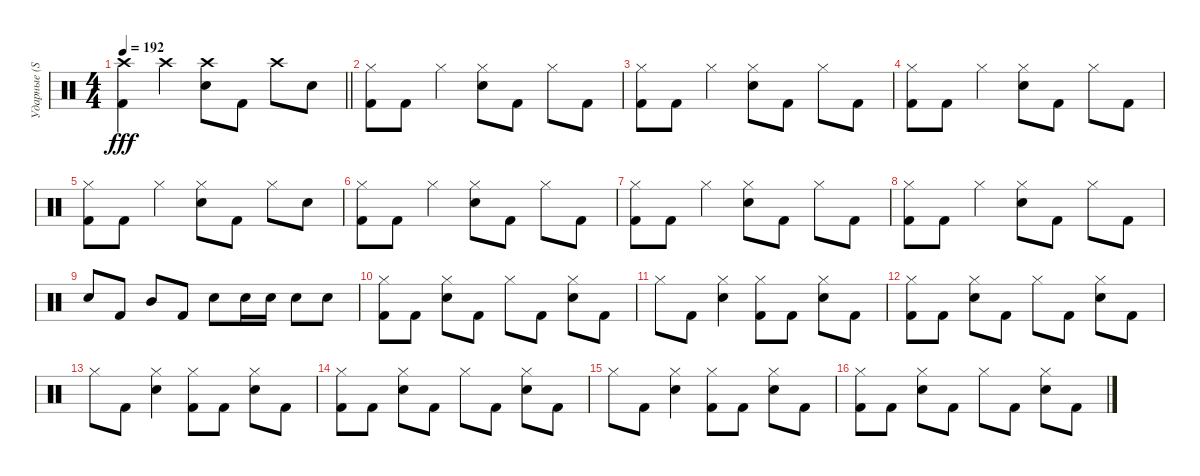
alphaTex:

\track ("Ударные (Steve Jocz)" "Ударные (S") {instrument percussion}
\staff {score}
\articulation defaults
\ts (4 4)
\tempo 192
\clef neutral
\barLineRight lightlight
\ks c
("Crash high (hit)" "Kick (hit) 2").4{dy fff} "Crash high (hit)".4 ("Crash high (hit)" "Electric Snare (hit)").8 "Kick (hit) 2".8 "Crash high (hit)".8 "Electric Snare (hit)".8 |
("Hi-Hat (closed)" "Kick (hit) 2").8 "Kick (hit) 2".8 "Hi-Hat (closed)".4 ("Hi-Hat (closed)" "Electric Snare (hit)").8 "Kick (hit) 2".8 "Hi-Hat (closed)".8 "Kick (hit) 2".8 |
("Hi-Hat (closed)" "Kick (hit) 2").8 "Kick (hit) 2".8 "Hi-Hat (closed)".4 ("Hi-Hat (closed)" "Electric Snare (hit)").8 "Kick (hit) 2".8 "Hi-Hat (closed)".8 "Kick (hit) 2".8 |
("Hi-Hat (closed)" "Kick (hit) 2").8 "Kick (hit) 2".8 "Hi-Hat (closed)".4 ("Hi-Hat (closed)" "Electric Snare (hit)").8 "Kick (hit) 2".8 "Hi-Hat (closed)".8 "Kick (hit) 2".8 |
("Hi-Hat (closed)" "Kick (hit) 2").8 "Kick (hit) 2".8 "Hi-Hat (closed)".4 ("Hi-Hat (closed)" "Electric Snare (hit)").8 "Kick (hit) 2".8 "Hi-Hat (closed)".8 "Electric Snare (hit)".8 |
("Hi-Hat (closed)" "Kick (hit) 2").8 "Kick (hit) 2".8 "Hi-Hat (closed)".4 ("Hi-Hat (closed)" "Electric Snare (hit)").8 "Kick (hit) 2".8 "Hi-Hat (closed)".8 "Kick (hit) 2".8 |
("Hi-Hat (closed)" "Kick (hit) 2").8 "Kick (hit) 2".8 "Hi-Hat (closed)".4 ("Hi-Hat (closed)" "Electric Snare (hit)").8 "Kick (hit) 2".8 "Hi-Hat (closed)".8 "Kick (hit) 2".8 |
("Hi-Hat (closed)" "Kick (hit) 2").8 "Kick (hit) 2".8 "Hi-Hat (closed)".4 ("Hi-Hat (closed)" "Electric Snare (hit)").8 "Kick (hit) 2".8 "Hi-Hat (closed)".8 "Kick (hit) 2".8 |
"Electric Snare (hit)".8 "Kick (hit) 2".8 "Mid Tom (hit)".8 "Kick (hit) 2".8 "Electric Snare (hit)".8 "Electric Snare (hit)".16 "Electric Snare (hit)".16 "Electric Snare (hit)".8 "Electric Snare (hit)".8 |
("Hi-Hat (closed)" "Kick (hit) 2").8 "Kick (hit) 2".8 ("Hi-Hat (closed)" "Electric Snare (hit)").8 "Kick (hit) 2".8 "Hi-Hat (closed)".8 "Kick (hit) 2".8 ("Hi-Hat (closed)" "Electric Snare (hit)").8 "Kick (hit) 2".8 |
"Hi-Hat (closed)".8 "Kick (hit) 2".8 ("Hi-Hat (closed)" "Electric Snare (hit)").4 ("Hi-Hat (closed)" "Kick (hit) 2").8 "Kick (hit) 2".8 ("Hi-Hat (closed)" "Electric Snare (hit)").8 "Kick (hit) 2".8 |
("Hi-Hat (closed)" "Kick (hit) 2").8 "Kick (hit) 2".8 ("Hi-Hat (closed)" "Electric Snare (hit)").8 "Kick (hit) 2".8 "Hi-Hat (closed)".8 "Kick (hit) 2".8 ("Hi-Hat (closed)" "Electric Snare (hit)").8 "Kick (hit) 2".8 |
"Hi-Hat (closed)".8 "Kick (hit) 2".8 ("Hi-Hat (closed)" "Electric Snare (hit)").4 ("Hi-Hat (closed)" "Kick (hit) 2").8 "Kick (hit) 2".8 ("Hi-Hat (closed)" "Electric Snare (hit)").8 "Kick (hit) 2".8 |
("Hi-Hat (closed)" "Kick (hit) 2").8 "Kick (hit) 2".8 ("Hi-Hat (closed)" "Electric Snare (hit)").8 "Kick (hit) 2".8 "Hi-Hat (closed)".8 "Kick (hit) 2".8 ("Hi-Hat (closed)" "Electric Snare (hit)").8 "Kick (hit) 2".8 |
"Hi-Hat (closed)".8 "Kick (hit) 2".8 ("Hi-Hat (closed)" "Electric Snare (hit)").4 ("Hi-Hat (closed)" "Kick (hit) 2").8 "Kick (hit) 2".8 ("Hi-Hat (closed)" "Electric Snare (hit)").8 "Kick (hit) 2".8 |
("Hi-Hat (closed)" "Kick (hit) 2").8 "Kick (hit) 2".8 ("Hi-Hat (closed)" "Electric Snare (hit)").8 "Kick (hit) 2".8 "Hi-Hat (closed)".8 "Kick (hit) 2".8 ("Hi-Hat (closed)" "Electric Snare (hit)").8 "Kick (hit) 2".8
